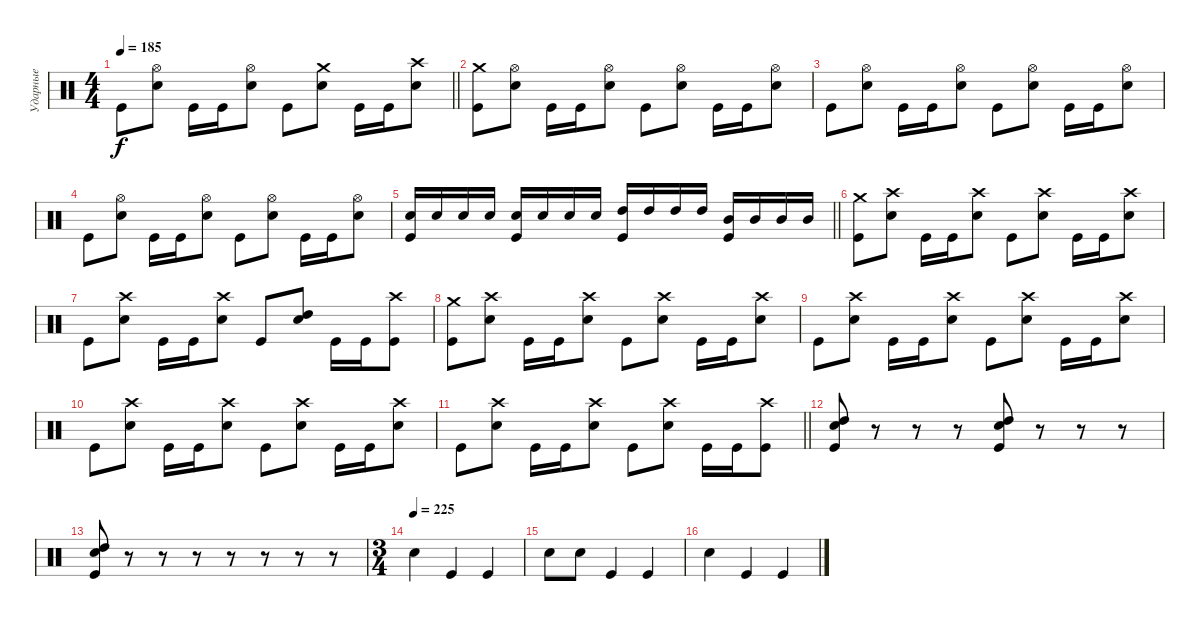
\track ("Ударные" "Ударные") {instrument percussion}
\staff {score}
\articulation defaults
\ts (4 4)
\tempo 185
\clef neutral
\barLineRight lightlight
\ks c "Kick (hit)".8{dy f}
("Hi-Hat (open)" "Electric Snare (hit)").8 "Kick (hit)".16 "Kick (hit)".16 ("Hi-Hat (open)" "Electric Snare (hit)").8 "Kick (hit)".8 ("Crash medium (hit)" "Electric Snare (hit)").8 "Kick (hit)".16 "Kick (hit)".16 ("Crash high (hit)" "Electric Snare (hit)").8 |
("Crash medium (hit)" "Kick (hit)").8 ("Hi-Hat (open)" "Electric Snare (hit)").8 "Kick (hit)".16 "Kick (hit)".16 ("Hi-Hat (open)" "Electric Snare (hit)").8 "Kick (hit)".8 ("Hi-Hat (open)" "Electric Snare (hit)").8 "Kick (hit)".16 "Kick (hit)".16 ("Hi-Hat (open)" "Electric Snare (hit)").8 |
"Kick (hit)".8 ("Hi-Hat (open)" "Electric Snare (hit)").8 "Kick (hit)".16 "Kick (hit)".16 ("Hi-Hat (open)" "Electric Snare (hit)").8 "Kick (hit)".8 ("Hi-Hat (open)" "Electric Snare (hit)").8 "Kick (hit)".16 "Kick (hit)".16 ("Hi-Hat (open)" "Electric Snare (hit)").8 |
"Kick (hit)".8 ("Hi-Hat (open)" "Electric Snare (hit)").8 "Kick (hit)".16 "Kick (hit)".16 ("Hi-Hat (open)" "Electric Snare (hit)").8 "Kick (hit)".8 ("Hi-Hat (open)" "Electric Snare (hit)").8 "Kick (hit)".16 "Kick (hit)".16 ("Hi-Hat (open)" "Electric Snare (hit)").8 |
\barLineRight lightlight
("Electric Snare (hit)" "Kick (hit)").16 "Electric Snare (hit)".16 "Electric Snare (hit)".16 "Electric Snare (hit)".16 ("Electric Snare (hit)" "Kick (hit)").16 "Electric Snare (hit)".16 "Electric Snare (hit)".16 "Electric Snare (hit)".16 ("High Tom (hit)" "Kick (hit)").16 "High Tom (hit)".16 "High Tom (hit)".16 "High Tom (hit)".16 ("Mid Tom (hit)" "Kick (hit)").16 "Mid Tom (hit)".16 "Mid Tom (hit)".16 "Mid Tom (hit)".16 |
\section ("" " ")
("Crash medium (hit)" "Kick (hit)").8 ("Crash high (hit)" "Electric Snare (hit)").8 "Kick (hit)".16 "Kick (hit)".16 ("Crash high (hit)" "Electric Snare (hit)").8 "Kick (hit)".8 ("Crash high (hit)" "Electric Snare (hit)").8 "Kick (hit)".16 "Kick (hit)".16 ("Crash high (hit)" "Electric Snare (hit)").8 |
"Kick (hit)".8 ("Crash high (hit)" "Electric Snare (hit)").8 "Kick (hit)".16 "Kick (hit)".16 ("Crash high (hit)" "Electric Snare (hit)").8 "Kick (hit)".8 ("High Tom (hit)" "Electric Snare (hit)").8 "Kick (hit)".16 "Kick (hit)".16 ("Crash high (hit)" "Kick (hit)").8 |
("Crash medium (hit)" "Kick (hit)").8 ("Crash high (hit)" "Electric Snare (hit)").8 "Kick (hit)".16 "Kick (hit)".16 ("Crash high (hit)" "Electric Snare (hit)").8 "Kick (hit)".8 ("Crash high (hit)" "Electric Snare (hit)").8 "Kick (hit)".16 "Kick (hit)".16 ("Crash high (hit)" "Electric Snare (hit)").8 |
"Kick (hit)".8 ("Crash high (hit)" "Electric Snare (hit)").8 "Kick (hit)".16 "Kick (hit)".16 ("Crash high (hit)" "Electric Snare (hit)").8 "Kick (hit)".8 ("Crash high (hit)" "Electric Snare (hit)").8 "Kick (hit)".16 "Kick (hit)".16 ("Crash high (hit)" "Electric Snare (hit)").8 |
"Kick (hit)".8 ("Crash high (hit)" "Electric Snare (hit)").8 "Kick (hit)".16 "Kick (hit)".16 ("Crash high (hit)" "Electric Snare (hit)").8 "Kick (hit)".8 ("Crash high (hit)" "Electric Snare (hit)").8 "Kick (hit)".16 "Kick (hit)".16 ("Crash high (hit)" "Electric Snare (hit)").8 |
\barLineRight lightlight "Kick (hit)".8
("Crash high (hit)" "Electric Snare (hit)").8 "Kick (hit)".16 "Kick (hit)".16 ("Crash high (hit)" "Electric Snare (hit)").8 "Kick (hit)".8 ("Crash high (hit)" "Electric Snare (hit)").8 "Kick (hit)".16 "Kick (hit)".16 ("Crash high (hit)" "Kick (hit)").8 |
\section ("" " ")
("High Tom (hit)" "Electric Snare (hit)" "Kick (hit)").8 r.8 r.8 r.8 ("High Tom (hit)" "Electric Snare (hit)" "Kick (hit)").8 r.8 r.8 r.8 |
("High Tom (hit)" "Electric Snare (hit)" "Kick (hit)").8 r.8 r.8 r.8 r.8 r.8 r.8 r.8 |
\ts (3 4)
\tempo (225)
"Electric Snare (hit)".4 "Kick (hit)".4 "Kick (hit)".4 |
"Electric Snare (hit)".8 "Electric Snare (hit)".8 "Kick (hit)".4 "Kick (hit)".4 |
"Electric Snare (hit)".4 "Kick (hit)".4 "Kick (hit)".4
